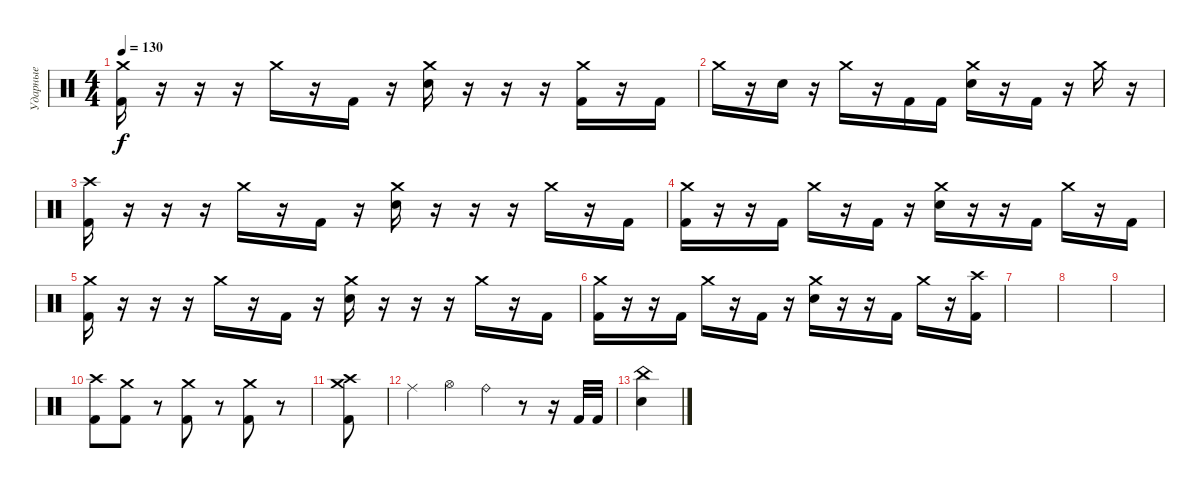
\track ("Ударные" "Ударные") {instrument percussion}
\staff {score}
\articulation defaults
\ts (4 4)
\tempo 130
\clef neutral
\ks c
("Crash medium (hit)" "Kick (hit) 2").16{dy f} r.16 r.16 r.16 "Crash medium (hit)".16 r.16 "Kick (hit) 2".16 r.16 ("Crash medium (hit)" "Electric Snare (hit)").16 r.16 r.16 r.16 ("Crash medium (hit)" "Kick (hit) 2").16 r.16 "Kick (hit) 2".16 |
"Crash medium (hit)".16 r.16 "Electric Snare (hit)".16 r.16 "Crash medium (hit)".16 r.16 "Kick (hit) 2".16 "Kick (hit) 2".16 ("Crash medium (hit)" "Electric Snare (hit)").16 r.16 "Kick (hit) 2".16 r.16 "Crash medium (hit)".16 r.16 |
("Crash high (hit)" "Kick (hit) 2").16 r.16 r.16 r.16 "Crash medium (hit)".16 r.16 "Kick (hit) 2".16 r.16 ("Crash medium (hit)" "Electric Snare (hit)").16 r.16 r.16 r.16 "Crash medium (hit)".16 r.16 "Kick (hit) 2".16 |
("Crash medium (hit)" "Kick (hit) 2").16 r.16 r.16 "Kick (hit) 2".16 "Crash medium (hit)".16 r.16 "Kick (hit) 2".16 r.16 ("Crash medium (hit)" "Electric Snare (hit)").16 r.16 r.16 "Kick (hit) 2".16 "Crash medium (hit)".16 r.16 "Kick (hit) 2".16 |
("Crash medium (hit)" "Kick (hit) 2").16 r.16 r.16 r.16 "Crash medium (hit)".16 r.16 "Kick (hit) 2".16 r.16 ("Crash medium (hit)" "Electric Snare (hit)").16 r.16 r.16 r.16 "Crash medium (hit)".16 r.16 "Kick (hit) 2".16 |
("Crash medium (hit)" "Kick (hit) 2").16 r.16 r.16 "Kick (hit) 2".16 "Crash medium (hit)".16 r.16 "Kick (hit) 2".16 r.16 ("Crash medium (hit)" "Electric Snare (hit)").16 r.16 r.16 "Kick (hit) 2".16 "Crash medium (hit)".16 r.16 ("Crash high (hit)" "Kick (hit) 2").16 |
|
|
|
("Crash high (hit)" "Kick (hit) 2").8 ("Crash medium (hit)" "Kick (hit) 2").8 r.8 ("Crash medium (hit)" "Kick (hit) 2").8 r.8 ("Crash medium (hit)" "Kick (hit) 2").8 r.8 |
("Kick (hit) 2" "Crash medium (hit)" "Crash high (hit)").8 |
"Ride (middle)".4 "Hi-Hat (open)".4 "Ride (bell)".4 r.8 r.16 "Kick (hit) 2".32 "Kick (hit) 2".32 |
("China (hit)" "Electric Snare (hit)").4
